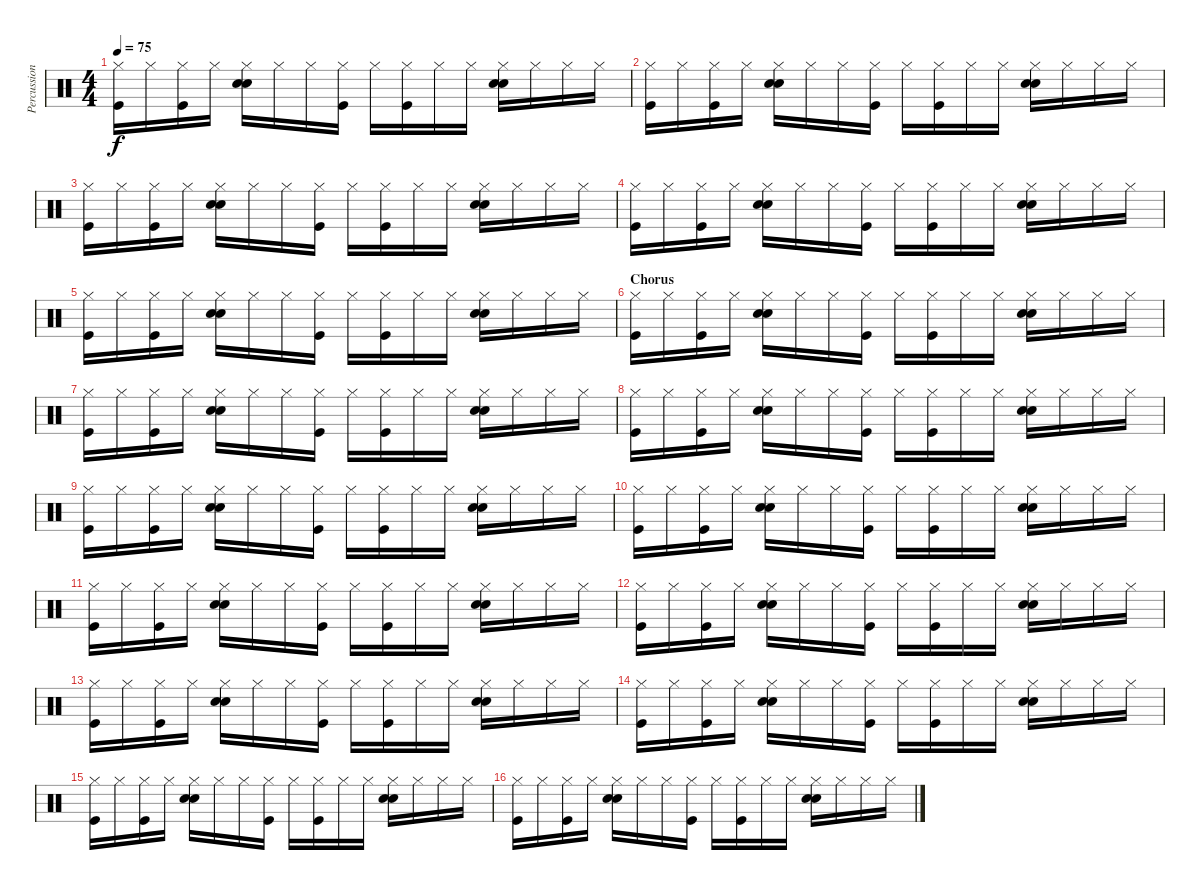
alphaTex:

\track ("Percussion" "Percussion") {instrument percussion}
\staff {score}
\articulation defaults
\ts (4 4)
\tempo 75
\clef neutral
\ks c
("Kick (hit)" "Hi-Hat (closed)").16{dy f} "Hi-Hat (closed)".16 ("Kick (hit)" "Hi-Hat (closed)").16 "Hi-Hat (closed)".16 ("Snare (hit) 2" "Electric Snare (hit)" "Hi-Hat (closed)").16 "Hi-Hat (closed)".16 "Hi-Hat (closed)".16 ("Kick (hit)" "Hi-Hat (closed)").16 "Hi-Hat (closed)".16 ("Kick (hit)" "Hi-Hat (closed)").16 "Hi-Hat (closed)".16 "Hi-Hat (closed)".16 ("Snare (hit) 2" "Electric Snare (hit)" "Hi-Hat (closed)").16 "Hi-Hat (closed)".16 "Hi-Hat (closed)".16 "Hi-Hat (closed)".16 |
("Kick (hit)" "Hi-Hat (closed)").16 "Hi-Hat (closed)".16 ("Kick (hit)" "Hi-Hat (closed)").16 "Hi-Hat (closed)".16 ("Snare (hit) 2" "Electric Snare (hit)" "Hi-Hat (closed)").16 "Hi-Hat (closed)".16 "Hi-Hat (closed)".16 ("Kick (hit)" "Hi-Hat (closed)").16 "Hi-Hat (closed)".16 ("Kick (hit)" "Hi-Hat (closed)").16 "Hi-Hat (closed)".16 "Hi-Hat (closed)".16 ("Snare (hit) 2" "Electric Snare (hit)" "Hi-Hat (closed)").16 "Hi-Hat (closed)".16 "Hi-Hat (closed)".16 "Hi-Hat (closed)".16 |
("Kick (hit)" "Hi-Hat (closed)").16 "Hi-Hat (closed)".16 ("Kick (hit)" "Hi-Hat (closed)").16 "Hi-Hat (closed)".16 ("Snare (hit) 2" "Electric Snare (hit)" "Hi-Hat (closed)").16 "Hi-Hat (closed)".16 "Hi-Hat (closed)".16 ("Kick (hit)" "Hi-Hat (closed)").16 "Hi-Hat (closed)".16 ("Kick (hit)" "Hi-Hat (closed)").16 "Hi-Hat (closed)".16 "Hi-Hat (closed)".16 ("Snare (hit) 2" "Electric Snare (hit)" "Hi-Hat (closed)").16 "Hi-Hat (closed)".16 "Hi-Hat (closed)".16 "Hi-Hat (closed)".16 |
("Kick (hit)" "Hi-Hat (closed)").16 "Hi-Hat (closed)".16 ("Kick (hit)" "Hi-Hat (closed)").16 "Hi-Hat (closed)".16 ("Snare (hit) 2" "Electric Snare (hit)" "Hi-Hat (closed)").16 "Hi-Hat (closed)".16 "Hi-Hat (closed)".16 ("Kick (hit)" "Hi-Hat (closed)").16 "Hi-Hat (closed)".16 ("Kick (hit)" "Hi-Hat (closed)").16 "Hi-Hat (closed)".16 "Hi-Hat (closed)".16 ("Snare (hit) 2" "Electric Snare (hit)" "Hi-Hat (closed)").16 "Hi-Hat (closed)".16 "Hi-Hat (closed)".16 "Hi-Hat (closed)".16 |
("Kick (hit)" "Hi-Hat (closed)").16 "Hi-Hat (closed)".16 ("Kick (hit)" "Hi-Hat (closed)").16 "Hi-Hat (closed)".16 ("Snare (hit) 2" "Electric Snare (hit)" "Hi-Hat (closed)").16 "Hi-Hat (closed)".16 "Hi-Hat (closed)".16 ("Kick (hit)" "Hi-Hat (closed)").16 "Hi-Hat (closed)".16 ("Kick (hit)" "Hi-Hat (closed)").16 "Hi-Hat (closed)".16 "Hi-Hat (closed)".16 ("Snare (hit) 2" "Electric Snare (hit)" "Hi-Hat (closed)").16 "Hi-Hat (closed)".16 "Hi-Hat (closed)".16 "Hi-Hat (closed)".16 |
\section ("" "Chorus")
("Kick (hit)" "Hi-Hat (closed)").16 "Hi-Hat (closed)".16 ("Kick (hit)" "Hi-Hat (closed)").16 "Hi-Hat (closed)".16 ("Snare (hit) 2" "Electric Snare (hit)" "Hi-Hat (closed)").16 "Hi-Hat (closed)".16 "Hi-Hat (closed)".16 ("Kick (hit)" "Hi-Hat (closed)").16 "Hi-Hat (closed)".16 ("Kick (hit)" "Hi-Hat (closed)").16 "Hi-Hat (closed)".16 "Hi-Hat (closed)".16 ("Snare (hit) 2" "Electric Snare (hit)" "Hi-Hat (closed)").16 "Hi-Hat (closed)".16 "Hi-Hat (closed)".16 "Hi-Hat (closed)".16 |
("Kick (hit)" "Hi-Hat (closed)").16 "Hi-Hat (closed)".16 ("Kick (hit)" "Hi-Hat (closed)").16 "Hi-Hat (closed)".16 ("Snare (hit) 2" "Electric Snare (hit)" "Hi-Hat (closed)").16 "Hi-Hat (closed)".16 "Hi-Hat (closed)".16 ("Kick (hit)" "Hi-Hat (closed)").16 "Hi-Hat (closed)".16 ("Kick (hit)" "Hi-Hat (closed)").16 "Hi-Hat (closed)".16 "Hi-Hat (closed)".16 ("Snare (hit) 2" "Electric Snare (hit)" "Hi-Hat (closed)").16 "Hi-Hat (closed)".16 "Hi-Hat (closed)".16 "Hi-Hat (closed)".16 |
("Kick (hit)" "Hi-Hat (closed)").16 "Hi-Hat (closed)".16 ("Kick (hit)" "Hi-Hat (closed)").16 "Hi-Hat (closed)".16 ("Snare (hit) 2" "Electric Snare (hit)" "Hi-Hat (closed)").16 "Hi-Hat (closed)".16 "Hi-Hat (closed)".16 ("Kick (hit)" "Hi-Hat (closed)").16 "Hi-Hat (closed)".16 ("Kick (hit)" "Hi-Hat (closed)").16 "Hi-Hat (closed)".16 "Hi-Hat (closed)".16 ("Snare (hit) 2" "Electric Snare (hit)" "Hi-Hat (closed)").16 "Hi-Hat (closed)".16 "Hi-Hat (closed)".16 "Hi-Hat (closed)".16 |
("Kick (hit)" "Hi-Hat (closed)").16 "Hi-Hat (closed)".16 ("Kick (hit)" "Hi-Hat (closed)").16 "Hi-Hat (closed)".16 ("Snare (hit) 2" "Electric Snare (hit)" "Hi-Hat (closed)").16 "Hi-Hat (closed)".16 "Hi-Hat (closed)".16 ("Kick (hit)" "Hi-Hat (closed)").16 "Hi-Hat (closed)".16 ("Kick (hit)" "Hi-Hat (closed)").16 "Hi-Hat (closed)".16 "Hi-Hat (closed)".16 ("Snare (hit) 2" "Electric Snare (hit)" "Hi-Hat (closed)").16 "Hi-Hat (closed)".16 "Hi-Hat (closed)".16 "Hi-Hat (closed)".16 |
("Kick (hit)" "Hi-Hat (closed)").16 "Hi-Hat (closed)".16 ("Kick (hit)" "Hi-Hat (closed)").16 "Hi-Hat (closed)".16 ("Snare (hit) 2" "Electric Snare (hit)" "Hi-Hat (closed)").16 "Hi-Hat (closed)".16 "Hi-Hat (closed)".16 ("Kick (hit)" "Hi-Hat (closed)").16 "Hi-Hat (closed)".16 ("Kick (hit)" "Hi-Hat (closed)").16 "Hi-Hat (closed)".16 "Hi-Hat (closed)".16 ("Snare (hit) 2" "Electric Snare (hit)" "Hi-Hat (closed)").16 "Hi-Hat (closed)".16 "Hi-Hat (closed)".16 "Hi-Hat (closed)".16 |
("Kick (hit)" "Hi-Hat (closed)").16 "Hi-Hat (closed)".16 ("Kick (hit)" "Hi-Hat (closed)").16 "Hi-Hat (closed)".16 ("Snare (hit) 2" "Electric Snare (hit)" "Hi-Hat (closed)").16 "Hi-Hat (closed)".16 "Hi-Hat (closed)".16 ("Kick (hit)" "Hi-Hat (closed)").16 "Hi-Hat (closed)".16 ("Kick (hit)" "Hi-Hat (closed)").16 "Hi-Hat (closed)".16 "Hi-Hat (closed)".16 ("Snare (hit) 2" "Electric Snare (hit)" "Hi-Hat (closed)").16 "Hi-Hat (closed)".16 "Hi-Hat (closed)".16 "Hi-Hat (closed)".16 |
("Kick (hit)" "Hi-Hat (closed)").16 "Hi-Hat (closed)".16 ("Kick (hit)" "Hi-Hat (closed)").16 "Hi-Hat (closed)".16 ("Snare (hit) 2" "Electric Snare (hit)" "Hi-Hat (closed)").16 "Hi-Hat (closed)".16 "Hi-Hat (closed)".16 ("Kick (hit)" "Hi-Hat (closed)").16 "Hi-Hat (closed)".16 ("Kick (hit)" "Hi-Hat (closed)").16 "Hi-Hat (closed)".16 "Hi-Hat (closed)".16 ("Snare (hit) 2" "Electric Snare (hit)" "Hi-Hat (closed)").16 "Hi-Hat (closed)".16 "Hi-Hat (closed)".16 "Hi-Hat (closed)".16 |
("Kick (hit)" "Hi-Hat (closed)").16 "Hi-Hat (closed)".16 ("Kick (hit)" "Hi-Hat (closed)").16 "Hi-Hat (closed)".16 ("Snare (hit) 2" "Electric Snare (hit)" "Hi-Hat (closed)").16 "Hi-Hat (closed)".16 "Hi-Hat (closed)".16 ("Kick (hit)" "Hi-Hat (closed)").16 "Hi-Hat (closed)".16 ("Kick (hit)" "Hi-Hat (closed)").16 "Hi-Hat (closed)".16 "Hi-Hat (closed)".16 ("Snare (hit) 2" "Electric Snare (hit)" "Hi-Hat (closed)").16 "Hi-Hat (closed)".16 "Hi-Hat (closed)".16 "Hi-Hat (closed)".16 |
("Kick (hit)" "Hi-Hat (closed)").16 "Hi-Hat (closed)".16 ("Kick (hit)" "Hi-Hat (closed)").16 "Hi-Hat (closed)".16 ("Snare (hit) 2" "Electric Snare (hit)" "Hi-Hat (closed)").16 "Hi-Hat (closed)".16 "Hi-Hat (closed)".16 ("Kick (hit)" "Hi-Hat (closed)").16 "Hi-Hat (closed)".16 ("Kick (hit)" "Hi-Hat (closed)").16 "Hi-Hat (closed)".16 "Hi-Hat (closed)".16 ("Snare (hit) 2" "Electric Snare (hit)" "Hi-Hat (closed)").16 "Hi-Hat (closed)".16 "Hi-Hat (closed)".16 "Hi-Hat (closed)".16 |
("Kick (hit)" "Hi-Hat (closed)").16 "Hi-Hat (closed)".16 ("Kick (hit)" "Hi-Hat (closed)").16 "Hi-Hat (closed)".16 ("Snare (hit) 2" "Electric Snare (hit)" "Hi-Hat (closed)").16 "Hi-Hat (closed)".16 "Hi-Hat (closed)".16 ("Kick (hit)" "Hi-Hat (closed)").16 "Hi-Hat (closed)".16 ("Kick (hit)" "Hi-Hat (closed)").16 "Hi-Hat (closed)".16 "Hi-Hat (closed)".16 ("Snare (hit) 2" "Electric Snare (hit)" "Hi-Hat (closed)").16 "Hi-Hat (closed)".16 "Hi-Hat (closed)".16 "Hi-Hat (closed)".16 |
("Kick (hit)" "Hi-Hat (closed)").16 "Hi-Hat (closed)".16 ("Kick (hit)" "Hi-Hat (closed)").16 "Hi-Hat (closed)".16 ("Snare (hit) 2" "Electric Snare (hit)" "Hi-Hat (closed)").16 "Hi-Hat (closed)".16 "Hi-Hat (closed)".16 ("Kick (hit)" "Hi-Hat (closed)").16 "Hi-Hat (closed)".16 ("Kick (hit)" "Hi-Hat (closed)").16 "Hi-Hat (closed)".16 "Hi-Hat (closed)".16 ("Snare (hit) 2" "Electric Snare (hit)" "Hi-Hat (closed)").16 "Hi-Hat (closed)".16 "Hi-Hat (closed)".16 "Hi-Hat (closed)".16
